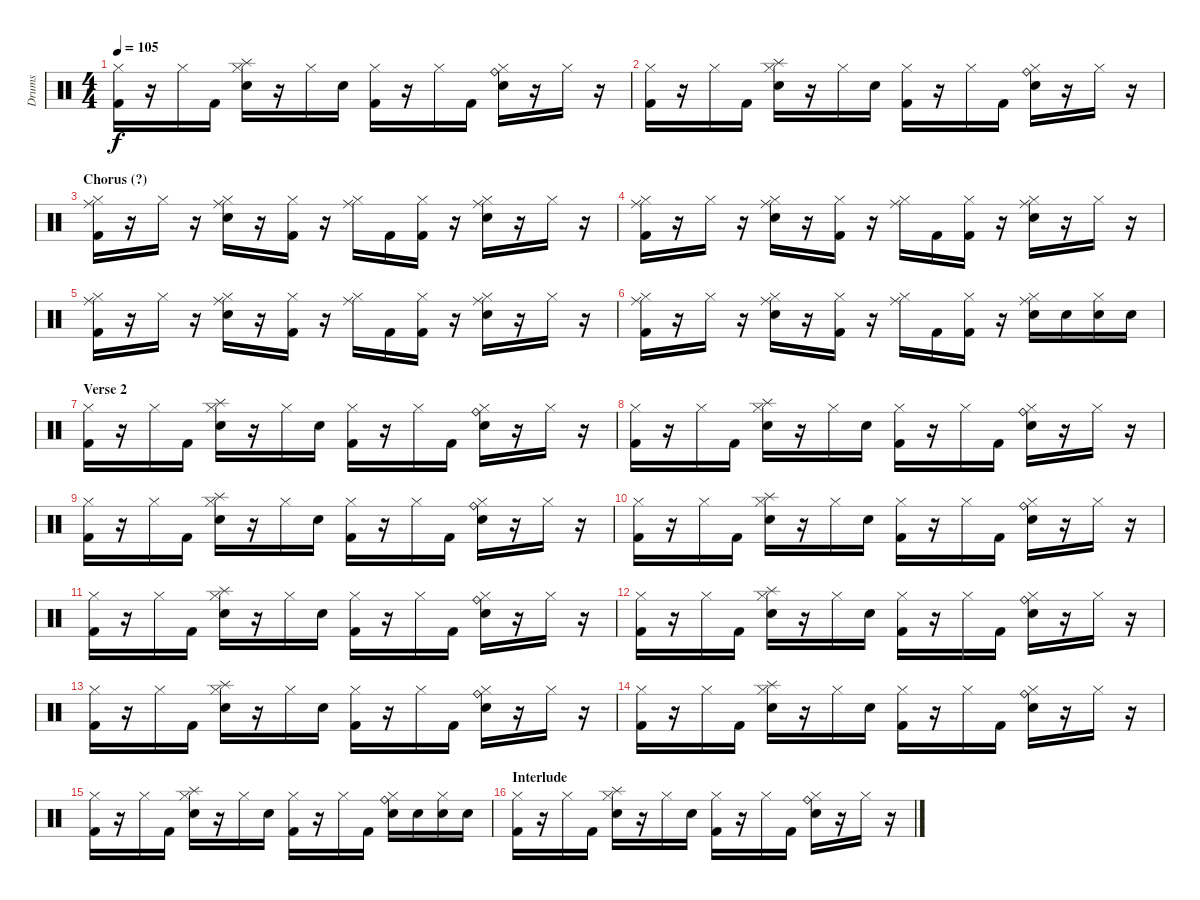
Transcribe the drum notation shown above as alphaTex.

\track ("Drums" "Drums") {instrument percussion}
\staff {score}
\articulation defaults
\ts (4 4)
\tempo 105
\clef neutral
\ks c
("Hi-Hat (closed)" "Kick (hit) 2").16{dy f} r.16 "Hi-Hat (closed)".16 "Kick (hit) 2".16 ("Hi-Hat (closed)" "Electric Snare (hit)" "Splash (hit)").16 r.16 "Hi-Hat (closed)".16 "Snare (hit) 2".16 ("Hi-Hat (closed)" "Kick (hit) 2").16 r.16 "Hi-Hat (closed)".16 "Kick (hit) 2".16 ("Hi-Hat (closed)" "Electric Snare (hit)" "Ride (bell)").16 r.16 "Hi-Hat (closed)".16 r.16 |
("Hi-Hat (closed)" "Kick (hit) 2").16 r.16 "Hi-Hat (closed)".16 "Kick (hit) 2".16 ("Hi-Hat (closed)" "Electric Snare (hit)" "Splash (hit)").16 r.16 "Hi-Hat (closed)".16 "Snare (hit) 2".16 ("Hi-Hat (closed)" "Kick (hit) 2").16 r.16 "Hi-Hat (closed)".16 "Kick (hit) 2".16 ("Hi-Hat (closed)" "Electric Snare (hit)" "Ride (bell)").16 r.16 "Hi-Hat (closed)".16 r.16 |
\section ("" "Chorus (?)")
("Hi-Hat (closed)" "Kick (hit) 2" "Ride (middle)").16 r.16 "Hi-Hat (closed)".16 r.16 ("Hi-Hat (closed)" "Snare (hit) 2" "Ride (middle)").16 r.16 ("Hi-Hat (closed)" "Kick (hit) 2").16 r.16 ("Hi-Hat (closed)" "Ride (middle)").16 "Kick (hit) 2".16 ("Hi-Hat (closed)" "Kick (hit) 2").16 r.16 ("Hi-Hat (closed)" "Snare (hit) 2" "Ride (middle)").16 r.16 "Hi-Hat (closed)".16 r.16 |
("Hi-Hat (closed)" "Kick (hit) 2" "Ride (middle)").16 r.16 "Hi-Hat (closed)".16 r.16 ("Hi-Hat (closed)" "Snare (hit) 2" "Ride (middle)").16 r.16 ("Hi-Hat (closed)" "Kick (hit) 2").16 r.16 ("Hi-Hat (closed)" "Ride (middle)").16 "Kick (hit) 2".16 ("Hi-Hat (closed)" "Kick (hit) 2").16 r.16 ("Hi-Hat (closed)" "Snare (hit) 2" "Ride (middle)").16 r.16 "Hi-Hat (closed)".16 r.16 |
("Hi-Hat (closed)" "Kick (hit) 2" "Ride (middle)").16 r.16 "Hi-Hat (closed)".16 r.16 ("Hi-Hat (closed)" "Snare (hit) 2" "Ride (middle)").16 r.16 ("Hi-Hat (closed)" "Kick (hit) 2").16 r.16 ("Hi-Hat (closed)" "Ride (middle)").16 "Kick (hit) 2".16 ("Hi-Hat (closed)" "Kick (hit) 2").16 r.16 ("Hi-Hat (closed)" "Snare (hit) 2" "Ride (middle)").16 r.16 "Hi-Hat (closed)".16 r.16 |
("Hi-Hat (closed)" "Kick (hit) 2" "Ride (middle)").16 r.16 "Hi-Hat (closed)".16 r.16 ("Hi-Hat (closed)" "Snare (hit) 2" "Ride (middle)").16 r.16 ("Hi-Hat (closed)" "Kick (hit) 2").16 r.16 ("Hi-Hat (closed)" "Ride (middle)").16 "Kick (hit) 2".16 ("Hi-Hat (closed)" "Kick (hit) 2").16 r.16 ("Hi-Hat (closed)" "Snare (hit) 2" "Ride (middle)").16 "Snare (hit) 2".16 ("Hi-Hat (closed)" "Snare (hit) 2").16 "Snare (hit) 2".16 |
\section ("" "Verse 2")
("Hi-Hat (closed)" "Kick (hit) 2").16 r.16 "Hi-Hat (closed)".16 "Kick (hit) 2".16 ("Hi-Hat (closed)" "Electric Snare (hit)" "Splash (hit)").16 r.16 "Hi-Hat (closed)".16 "Snare (hit) 2".16 ("Hi-Hat (closed)" "Kick (hit) 2").16 r.16 "Hi-Hat (closed)".16 "Kick (hit) 2".16 ("Hi-Hat (closed)" "Electric Snare (hit)" "Ride (bell)").16 r.16 "Hi-Hat (closed)".16 r.16 |
("Hi-Hat (closed)" "Kick (hit) 2").16 r.16 "Hi-Hat (closed)".16 "Kick (hit) 2".16 ("Hi-Hat (closed)" "Electric Snare (hit)" "Splash (hit)").16 r.16 "Hi-Hat (closed)".16 "Snare (hit) 2".16 ("Hi-Hat (closed)" "Kick (hit) 2").16 r.16 "Hi-Hat (closed)".16 "Kick (hit) 2".16 ("Hi-Hat (closed)" "Electric Snare (hit)" "Ride (bell)").16 r.16 "Hi-Hat (closed)".16 r.16 |
("Hi-Hat (closed)" "Kick (hit) 2").16 r.16 "Hi-Hat (closed)".16 "Kick (hit) 2".16 ("Hi-Hat (closed)" "Electric Snare (hit)" "Splash (hit)").16 r.16 "Hi-Hat (closed)".16 "Snare (hit) 2".16 ("Hi-Hat (closed)" "Kick (hit) 2").16 r.16 "Hi-Hat (closed)".16 "Kick (hit) 2".16 ("Hi-Hat (closed)" "Electric Snare (hit)" "Ride (bell)").16 r.16 "Hi-Hat (closed)".16 r.16 |
("Hi-Hat (closed)" "Kick (hit) 2").16 r.16 "Hi-Hat (closed)".16 "Kick (hit) 2".16 ("Hi-Hat (closed)" "Electric Snare (hit)" "Splash (hit)").16 r.16 "Hi-Hat (closed)".16 "Snare (hit) 2".16 ("Hi-Hat (closed)" "Kick (hit) 2").16 r.16 "Hi-Hat (closed)".16 "Kick (hit) 2".16 ("Hi-Hat (closed)" "Electric Snare (hit)" "Ride (bell)").16 r.16 "Hi-Hat (closed)".16 r.16 |
("Hi-Hat (closed)" "Kick (hit) 2").16 r.16 "Hi-Hat (closed)".16 "Kick (hit) 2".16 ("Hi-Hat (closed)" "Electric Snare (hit)" "Splash (hit)").16 r.16 "Hi-Hat (closed)".16 "Snare (hit) 2".16 ("Hi-Hat (closed)" "Kick (hit) 2").16 r.16 "Hi-Hat (closed)".16 "Kick (hit) 2".16 ("Hi-Hat (closed)" "Electric Snare (hit)" "Ride (bell)").16 r.16 "Hi-Hat (closed)".16 r.16 |
("Hi-Hat (closed)" "Kick (hit) 2").16 r.16 "Hi-Hat (closed)".16 "Kick (hit) 2".16 ("Hi-Hat (closed)" "Electric Snare (hit)" "Splash (hit)").16 r.16 "Hi-Hat (closed)".16 "Snare (hit) 2".16 ("Hi-Hat (closed)" "Kick (hit) 2").16 r.16 "Hi-Hat (closed)".16 "Kick (hit) 2".16 ("Hi-Hat (closed)" "Electric Snare (hit)" "Ride (bell)").16 r.16 "Hi-Hat (closed)".16 r.16 |
("Hi-Hat (closed)" "Kick (hit) 2").16 r.16 "Hi-Hat (closed)".16 "Kick (hit) 2".16 ("Hi-Hat (closed)" "Electric Snare (hit)" "Splash (hit)").16 r.16 "Hi-Hat (closed)".16 "Snare (hit) 2".16 ("Hi-Hat (closed)" "Kick (hit) 2").16 r.16 "Hi-Hat (closed)".16 "Kick (hit) 2".16 ("Hi-Hat (closed)" "Electric Snare (hit)" "Ride (bell)").16 r.16 "Hi-Hat (closed)".16 r.16 |
("Hi-Hat (closed)" "Kick (hit) 2").16 r.16 "Hi-Hat (closed)".16 "Kick (hit) 2".16 ("Hi-Hat (closed)" "Electric Snare (hit)" "Splash (hit)").16 r.16 "Hi-Hat (closed)".16 "Snare (hit) 2".16 ("Hi-Hat (closed)" "Kick (hit) 2").16 r.16 "Hi-Hat (closed)".16 "Kick (hit) 2".16 ("Hi-Hat (closed)" "Electric Snare (hit)" "Ride (bell)").16 r.16 "Hi-Hat (closed)".16 r.16 |
("Hi-Hat (closed)" "Kick (hit) 2").16 r.16 "Hi-Hat (closed)".16 "Kick (hit) 2".16 ("Hi-Hat (closed)" "Electric Snare (hit)" "Splash (hit)").16 r.16 "Hi-Hat (closed)".16 "Snare (hit) 2".16 ("Hi-Hat (closed)" "Kick (hit) 2").16 r.16 "Hi-Hat (closed)".16 "Kick (hit) 2".16 ("Hi-Hat (closed)" "Electric Snare (hit)" "Ride (bell)").16 "Electric Snare (hit)".16 ("Hi-Hat (closed)" "Electric Snare (hit)").16 "Electric Snare (hit)".16 |
\section ("" "Interlude")
("Hi-Hat (closed)" "Kick (hit) 2").16 r.16 "Hi-Hat (closed)".16 "Kick (hit) 2".16 ("Hi-Hat (closed)" "Electric Snare (hit)" "Splash (hit)").16 r.16 "Hi-Hat (closed)".16 "Snare (hit) 2".16 ("Hi-Hat (closed)" "Kick (hit) 2").16 r.16 "Hi-Hat (closed)".16 "Kick (hit) 2".16 ("Hi-Hat (closed)" "Electric Snare (hit)" "Ride (bell)").16 r.16 "Hi-Hat (closed)".16 r.16
